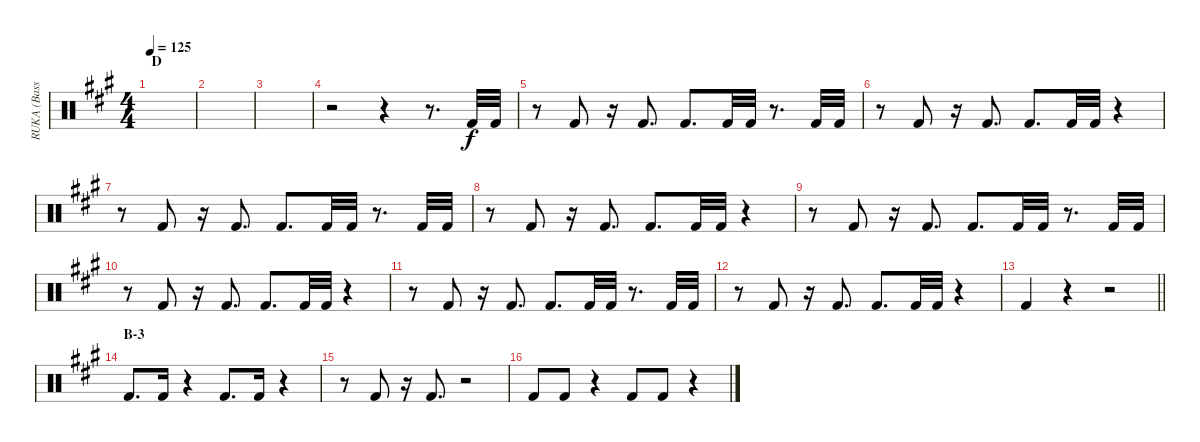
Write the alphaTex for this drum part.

\track ("RUKA (Bass Drum)" "RUKA (Bass") {instrument percussion}
\staff {score}
\articulation defaults
\ts (4 4)
\section ("" "D")
\tempo 125
\clef neutral
\ks a
|
|
|
r.2 r.4 r.8{d} "Kick (hit) 2".32 "Kick (hit) 2".32 |
r.8 "Kick (hit) 2".8 r.16 "Kick (hit) 2".8{d} "Kick (hit) 2".8{d} "Kick (hit) 2".32 "Kick (hit) 2".32 r.8{d} "Kick (hit) 2".32 "Kick (hit) 2".32 |
r.8 "Kick (hit) 2".8 r.16 "Kick (hit) 2".8{d} "Kick (hit) 2".8{d} "Kick (hit) 2".32 "Kick (hit) 2".32 r.4 |
r.8 "Kick (hit) 2".8 r.16 "Kick (hit) 2".8{d} "Kick (hit) 2".8{d} "Kick (hit) 2".32 "Kick (hit) 2".32 r.8{d} "Kick (hit) 2".32 "Kick (hit) 2".32 |
r.8 "Kick (hit) 2".8 r.16 "Kick (hit) 2".8{d} "Kick (hit) 2".8{d} "Kick (hit) 2".32 "Kick (hit) 2".32 r.4 |
r.8 "Kick (hit) 2".8 r.16 "Kick (hit) 2".8{d} "Kick (hit) 2".8{d} "Kick (hit) 2".32 "Kick (hit) 2".32 r.8{d} "Kick (hit) 2".32 "Kick (hit) 2".32 |
r.8 "Kick (hit) 2".8 r.16 "Kick (hit) 2".8{d} "Kick (hit) 2".8{d} "Kick (hit) 2".32 "Kick (hit) 2".32 r.4 |
r.8 "Kick (hit) 2".8 r.16 "Kick (hit) 2".8{d} "Kick (hit) 2".8{d} "Kick (hit) 2".32 "Kick (hit) 2".32 r.8{d} "Kick (hit) 2".32 "Kick (hit) 2".32 |
r.8 "Kick (hit) 2".8 r.16 "Kick (hit) 2".8{d} "Kick (hit) 2".8{d} "Kick (hit) 2".32 "Kick (hit) 2".32 r.4 |
\barLineRight lightlight "Kick (hit) 2".4
r.4 r.2 |
\section ("" "B-3")
"Kick (hit) 2".8{d} "Kick (hit) 2".16 r.4 "Kick (hit) 2".8{d} "Kick (hit) 2".16 r.4 |
r.8 "Kick (hit) 2".8 r.16 "Kick (hit) 2".8{d} r.2 |
"Kick (hit) 2".8 "Kick (hit) 2".8 r.4 "Kick (hit) 2".8 "Kick (hit) 2".8 r.4
